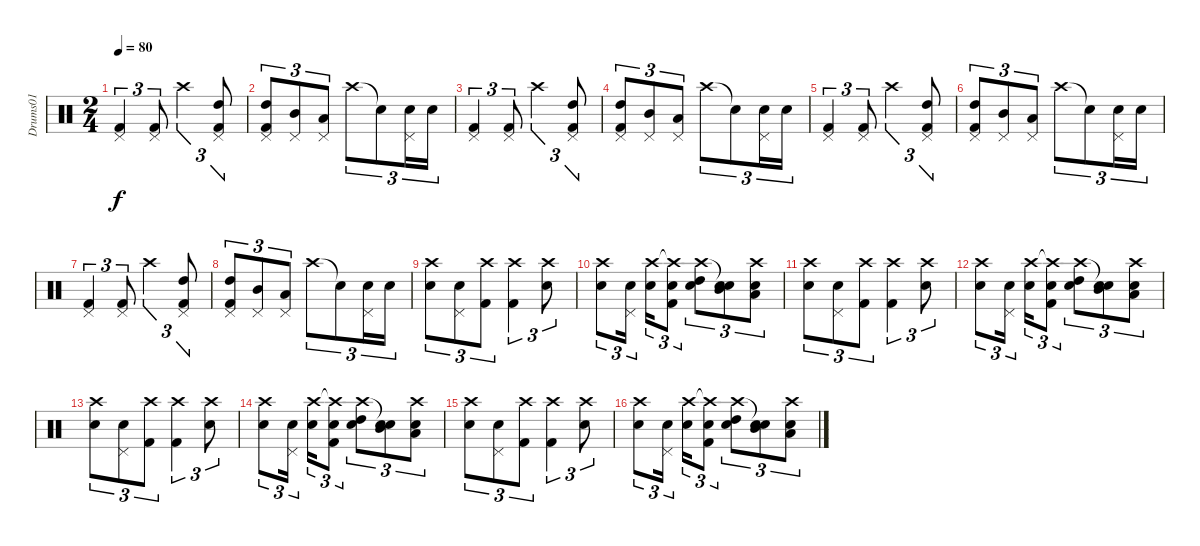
\track ("Drums01" "Drums01") {instrument percussion}
\staff {score}
\articulation defaults
\ts (2 4)
\tempo 80
\clef neutral
\ks c
("Pedal Hi-Hat (hit)" "Kick (hit) 2").4{tu (3 2) dy f} ("Pedal Hi-Hat (hit)" "Kick (hit) 2").8{tu (3 2)} "Crash high (hit)".4{tu (3 2)} ("Pedal Hi-Hat (hit)" "High Tom (hit)" "Kick (hit) 2").8{tu (3 2)} |
("Pedal Hi-Hat (hit)" "High Tom (hit)" "Kick (hit) 2").8{tu (3 2)} ("Pedal Hi-Hat (hit)" "Mid Tom (hit)").8{tu (3 2)} ("Pedal Hi-Hat (hit)" "Low Tom (hit)").8{tu (3 2)} "Crash high (hit)".8{tu (3 2)} "Snare (hit)"{t}.8{tu (3 2)} ("Pedal Hi-Hat (hit)" "Snare (hit) 2").16{tu (3 2)} "Snare (hit) 2".16{tu (3 2)} |
("Pedal Hi-Hat (hit)" "Kick (hit) 2").4{tu (3 2)} ("Pedal Hi-Hat (hit)" "Kick (hit) 2").8{tu (3 2)} "Crash high (hit)".4{tu (3 2)} ("Pedal Hi-Hat (hit)" "High Tom (hit)" "Kick (hit) 2").8{tu (3 2)} |
("Pedal Hi-Hat (hit)" "High Tom (hit)" "Kick (hit) 2").8{tu (3 2)} ("Pedal Hi-Hat (hit)" "Mid Tom (hit)").8{tu (3 2)} ("Pedal Hi-Hat (hit)" "Low Tom (hit)").8{tu (3 2)} "Crash high (hit)".8{tu (3 2)} "Snare (hit)"{t}.8{tu (3 2)} ("Pedal Hi-Hat (hit)" "Snare (hit) 2").16{tu (3 2)} "Snare (hit) 2".16{tu (3 2)} |
("Pedal Hi-Hat (hit)" "Kick (hit) 2").4{tu (3 2)} ("Pedal Hi-Hat (hit)" "Kick (hit) 2").8{tu (3 2)} "Crash high (hit)".4{tu (3 2)} ("Pedal Hi-Hat (hit)" "High Tom (hit)" "Kick (hit) 2").8{tu (3 2)} |
("Pedal Hi-Hat (hit)" "High Tom (hit)" "Kick (hit) 2").8{tu (3 2)} ("Pedal Hi-Hat (hit)" "Mid Tom (hit)").8{tu (3 2)} ("Pedal Hi-Hat (hit)" "Low Tom (hit)").8{tu (3 2)} "Crash high (hit)".8{tu (3 2)} "Snare (hit)"{t}.8{tu (3 2)} ("Pedal Hi-Hat (hit)" "Snare (hit) 2").16{tu (3 2)} "Snare (hit) 2".16{tu (3 2)} |
("Pedal Hi-Hat (hit)" "Kick (hit) 2").4{tu (3 2)} ("Pedal Hi-Hat (hit)" "Kick (hit) 2").8{tu (3 2)} "Crash high (hit)".4{tu (3 2)} ("Pedal Hi-Hat (hit)" "High Tom (hit)" "Kick (hit) 2").8{tu (3 2)} |
("Pedal Hi-Hat (hit)" "High Tom (hit)" "Kick (hit) 2").8{tu (3 2)} ("Pedal Hi-Hat (hit)" "Mid Tom (hit)").8{tu (3 2)} ("Pedal Hi-Hat (hit)" "Low Tom (hit)").8{tu (3 2)} "Crash high (hit)".8{tu (3 2)} "Snare (hit)"{t}.8{tu (3 2)} ("Pedal Hi-Hat (hit)" "Snare (hit) 2").16{tu (3 2)} "Snare (hit) 2".16{tu (3 2)} |
("Crash high (hit)" "Snare (hit) 2").8{tu (3 2)} ("Pedal Hi-Hat (hit)" "Snare (hit) 2").8{tu (3 2)} ("Crash high (hit)" "Kick (hit) 2").8{tu (3 2)} ("Crash high (hit)" "Kick (hit) 2").4{tu (3 2)} ("Crash high (hit)" "Snare (hit) 2").8{tu (3 2)} |
("Crash high (hit)" "Snare (hit) 2").8{tu (3 2)} ("Pedal Hi-Hat (hit)" "Snare (hit) 2").16{tu (3 2) beam splitsecondary} ("Crash high (hit)" "Snare (hit) 2").16{tu (3 2)} ("Crash high (hit)"{t} "Snare (hit) 2" "Kick (hit) 2").8{tu (3 2)} ("Crash high (hit)" "High Tom (hit)" "Snare (hit) 2").8{tu (3 2)} ("Snare (hit)"{t} "Mid Tom (hit)" "Snare (hit) 2").8{tu (3 2)} ("Crash high (hit)" "Low Tom (hit)" "Snare (hit) 2").8{tu (3 2)} |
("Crash high (hit)" "Snare (hit) 2").8{tu (3 2)} ("Pedal Hi-Hat (hit)" "Snare (hit) 2").8{tu (3 2)} ("Crash high (hit)" "Kick (hit) 2").8{tu (3 2)} ("Crash high (hit)" "Kick (hit) 2").4{tu (3 2)} ("Crash high (hit)" "Snare (hit) 2").8{tu (3 2)} |
("Crash high (hit)" "Snare (hit) 2").8{tu (3 2)} ("Pedal Hi-Hat (hit)" "Snare (hit) 2").16{tu (3 2) beam splitsecondary} ("Crash high (hit)" "Snare (hit) 2").16{tu (3 2)} ("Crash high (hit)"{t} "Snare (hit) 2" "Kick (hit) 2").8{tu (3 2)} ("Crash high (hit)" "High Tom (hit)" "Snare (hit) 2").8{tu (3 2)} ("Snare (hit)"{t} "Mid Tom (hit)" "Snare (hit) 2").8{tu (3 2)} ("Crash high (hit)" "Low Tom (hit)" "Snare (hit) 2").8{tu (3 2)} |
("Crash high (hit)" "Snare (hit) 2").8{tu (3 2)} ("Pedal Hi-Hat (hit)" "Snare (hit) 2").8{tu (3 2)} ("Crash high (hit)" "Kick (hit) 2").8{tu (3 2)} ("Crash high (hit)" "Kick (hit) 2").4{tu (3 2)} ("Crash high (hit)" "Snare (hit) 2").8{tu (3 2)} |
("Crash high (hit)" "Snare (hit) 2").8{tu (3 2)} ("Pedal Hi-Hat (hit)" "Snare (hit) 2").16{tu (3 2) beam splitsecondary} ("Crash high (hit)" "Snare (hit) 2").16{tu (3 2)} ("Crash high (hit)"{t} "Snare (hit) 2" "Kick (hit) 2").8{tu (3 2)} ("Crash high (hit)" "High Tom (hit)" "Snare (hit) 2").8{tu (3 2)} ("Snare (hit)"{t} "Mid Tom (hit)" "Snare (hit) 2").8{tu (3 2)} ("Crash high (hit)" "Low Tom (hit)" "Snare (hit) 2").8{tu (3 2)} |
("Crash high (hit)" "Snare (hit) 2").8{tu (3 2)} ("Pedal Hi-Hat (hit)" "Snare (hit) 2").8{tu (3 2)} ("Crash high (hit)" "Kick (hit) 2").8{tu (3 2)} ("Crash high (hit)" "Kick (hit) 2").4{tu (3 2)} ("Crash high (hit)" "Snare (hit) 2").8{tu (3 2)} |
("Crash high (hit)" "Snare (hit) 2").8{tu (3 2)} ("Pedal Hi-Hat (hit)" "Snare (hit) 2").16{tu (3 2) beam splitsecondary} ("Crash high (hit)" "Snare (hit) 2").16{tu (3 2)} ("Crash high (hit)"{t} "Snare (hit) 2" "Kick (hit) 2").8{tu (3 2)} ("Crash high (hit)" "High Tom (hit)" "Snare (hit) 2").8{tu (3 2)} ("Snare (hit)"{t} "Mid Tom (hit)" "Snare (hit) 2").8{tu (3 2)} ("Crash high (hit)" "Low Tom (hit)" "Snare (hit) 2").8{tu (3 2)}
